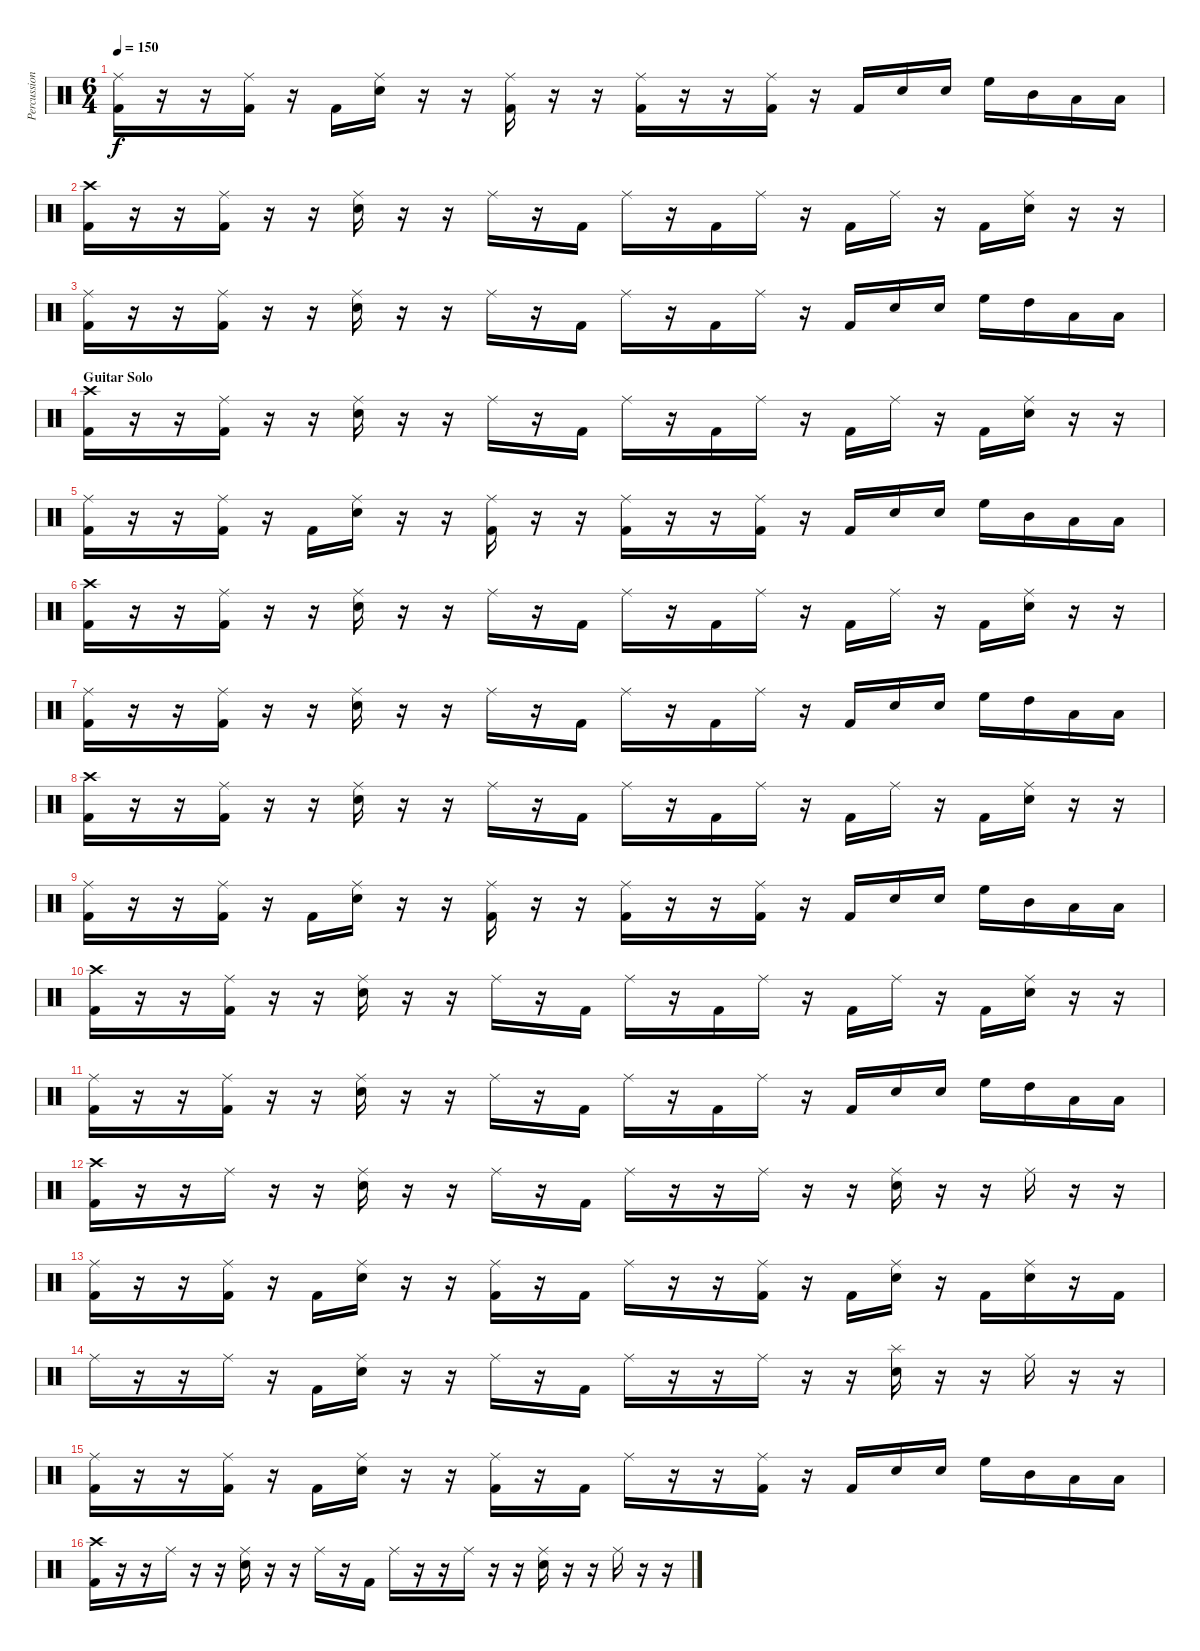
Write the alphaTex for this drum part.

\track ("Percussion" "Percussion") {instrument percussion}
\staff {score}
\articulation defaults
\ts (6 4)
\tempo 150
\clef neutral
\ks c
("Ride (middle)" "Kick (hit) 2").16{dy f} r.16 r.16 ("Ride (middle)" "Kick (hit) 2").16 r.16 "Kick (hit) 2".16 ("Ride (middle)" "Electric Snare (hit)").16 r.16 r.16 ("Ride (middle)" "Kick (hit) 2").16 r.16 r.16 ("Ride (middle)" "Kick (hit) 2").16 r.16 r.16 ("Ride (middle)" "Kick (hit) 2").16 r.16 "Kick (hit) 2".16 "Electric Snare (hit)".16 "Electric Snare (hit)".16 "High Floor Tom (hit)".16 "Mid Tom (hit)".16 "Low Tom (hit)".16 "Low Floor Tom (hit)".16 |
("Crash high (hit)" "Kick (hit) 2").16 r.16 r.16 ("Ride (middle)" "Kick (hit) 2").16 r.16 r.16 ("Ride (middle)" "Electric Snare (hit)").16 r.16 r.16 "Ride (middle)".16 r.16 "Kick (hit) 2".16 "Ride (middle)".16 r.16 "Kick (hit) 2".16 "Ride (middle)".16 r.16 "Kick (hit) 2".16 "Ride (middle)".16 r.16 "Kick (hit) 2".16 ("Ride (middle)" "Electric Snare (hit)").16 r.16 r.16 |
("Ride (middle)" "Kick (hit) 2").16 r.16 r.16 ("Ride (middle)" "Kick (hit) 2").16 r.16 r.16 ("Ride (middle)" "Electric Snare (hit)").16 r.16 r.16 "Ride (middle)".16 r.16 "Kick (hit) 2".16 "Ride (middle)".16 r.16 "Kick (hit) 2".16 "Ride (middle)".16 r.16 "Kick (hit) 2".16 "Electric Snare (hit)".16 "Electric Snare (hit)".16 "High Floor Tom (hit)".16 "High Tom (hit)".16 "Low Tom (hit)".16 "Low Floor Tom (hit)".16 |
\section ("" "Guitar Solo")
("Crash high (hit)" "Kick (hit) 2").16 r.16 r.16 ("Ride (middle)" "Kick (hit) 2").16 r.16 r.16 ("Ride (middle)" "Electric Snare (hit)").16 r.16 r.16 "Ride (middle)".16 r.16 "Kick (hit) 2".16 "Ride (middle)".16 r.16 "Kick (hit) 2".16 "Ride (middle)".16 r.16 "Kick (hit) 2".16 "Ride (middle)".16 r.16 "Kick (hit) 2".16 ("Ride (middle)" "Electric Snare (hit)").16 r.16 r.16 |
("Ride (middle)" "Kick (hit) 2").16 r.16 r.16 ("Ride (middle)" "Kick (hit) 2").16 r.16 "Kick (hit) 2".16 ("Ride (middle)" "Electric Snare (hit)").16 r.16 r.16 ("Ride (middle)" "Kick (hit) 2").16 r.16 r.16 ("Ride (middle)" "Kick (hit) 2").16 r.16 r.16 ("Ride (middle)" "Kick (hit) 2").16 r.16 "Kick (hit) 2".16 "Electric Snare (hit)".16 "Electric Snare (hit)".16 "High Floor Tom (hit)".16 "Mid Tom (hit)".16 "Low Tom (hit)".16 "Low Floor Tom (hit)".16 |
("Crash high (hit)" "Kick (hit) 2").16 r.16 r.16 ("Ride (middle)" "Kick (hit) 2").16 r.16 r.16 ("Ride (middle)" "Electric Snare (hit)").16 r.16 r.16 "Ride (middle)".16 r.16 "Kick (hit) 2".16 "Ride (middle)".16 r.16 "Kick (hit) 2".16 "Ride (middle)".16 r.16 "Kick (hit) 2".16 "Ride (middle)".16 r.16 "Kick (hit) 2".16 ("Ride (middle)" "Electric Snare (hit)").16 r.16 r.16 |
("Ride (middle)" "Kick (hit) 2").16 r.16 r.16 ("Ride (middle)" "Kick (hit) 2").16 r.16 r.16 ("Ride (middle)" "Electric Snare (hit)").16 r.16 r.16 "Ride (middle)".16 r.16 "Kick (hit) 2".16 "Ride (middle)".16 r.16 "Kick (hit) 2".16 "Ride (middle)".16 r.16 "Kick (hit) 2".16 "Electric Snare (hit)".16 "Electric Snare (hit)".16 "High Floor Tom (hit)".16 "High Tom (hit)".16 "Low Tom (hit)".16 "Low Floor Tom (hit)".16 |
("Crash high (hit)" "Kick (hit) 2").16 r.16 r.16 ("Ride (middle)" "Kick (hit) 2").16 r.16 r.16 ("Ride (middle)" "Electric Snare (hit)").16 r.16 r.16 "Ride (middle)".16 r.16 "Kick (hit) 2".16 "Ride (middle)".16 r.16 "Kick (hit) 2".16 "Ride (middle)".16 r.16 "Kick (hit) 2".16 "Ride (middle)".16 r.16 "Kick (hit) 2".16 ("Ride (middle)" "Electric Snare (hit)").16 r.16 r.16 |
("Ride (middle)" "Kick (hit) 2").16 r.16 r.16 ("Ride (middle)" "Kick (hit) 2").16 r.16 "Kick (hit) 2".16 ("Ride (middle)" "Electric Snare (hit)").16 r.16 r.16 ("Ride (middle)" "Kick (hit) 2").16 r.16 r.16 ("Ride (middle)" "Kick (hit) 2").16 r.16 r.16 ("Ride (middle)" "Kick (hit) 2").16 r.16 "Kick (hit) 2".16 "Electric Snare (hit)".16 "Electric Snare (hit)".16 "High Floor Tom (hit)".16 "Mid Tom (hit)".16 "Low Tom (hit)".16 "Low Floor Tom (hit)".16 |
("Crash high (hit)" "Kick (hit) 2").16 r.16 r.16 ("Ride (middle)" "Kick (hit) 2").16 r.16 r.16 ("Ride (middle)" "Electric Snare (hit)").16 r.16 r.16 "Ride (middle)".16 r.16 "Kick (hit) 2".16 "Ride (middle)".16 r.16 "Kick (hit) 2".16 "Ride (middle)".16 r.16 "Kick (hit) 2".16 "Ride (middle)".16 r.16 "Kick (hit) 2".16 ("Ride (middle)" "Electric Snare (hit)").16 r.16 r.16 |
("Ride (middle)" "Kick (hit) 2").16 r.16 r.16 ("Ride (middle)" "Kick (hit) 2").16 r.16 r.16 ("Ride (middle)" "Electric Snare (hit)").16 r.16 r.16 "Ride (middle)".16 r.16 "Kick (hit) 2".16 "Ride (middle)".16 r.16 "Kick (hit) 2".16 "Ride (middle)".16 r.16 "Kick (hit) 2".16 "Electric Snare (hit)".16 "Electric Snare (hit)".16 "High Floor Tom (hit)".16 "High Tom (hit)".16 "Low Tom (hit)".16 "Low Floor Tom (hit)".16 |
("Crash high (hit)" "Kick (hit) 2").16 r.16 r.16 "Ride (middle)".16 r.16 r.16 ("Ride (middle)" "Electric Snare (hit)").16 r.16 r.16 "Ride (middle)".16 r.16 "Kick (hit) 2".16 "Ride (middle)".16 r.16 r.16 "Ride (middle)".16 r.16 r.16 ("Ride (middle)" "Electric Snare (hit)").16 r.16 r.16 "Ride (middle)".16 r.16 r.16 |
("Ride (middle)" "Kick (hit) 2").16 r.16 r.16 ("Ride (middle)" "Kick (hit) 2").16 r.16 "Kick (hit) 2".16 ("Ride (middle)" "Electric Snare (hit)").16 r.16 r.16 ("Ride (middle)" "Kick (hit) 2").16 r.16 "Kick (hit) 2".16 "Ride (middle)".16 r.16 r.16 ("Ride (middle)" "Kick (hit) 2").16 r.16 "Kick (hit) 2".16 ("Ride (middle)" "Electric Snare (hit)").16 r.16 "Kick (hit) 2".16 ("Ride (middle)" "Electric Snare (hit)").16 r.16 "Kick (hit) 2".16 |
"Ride (middle)".16 r.16 r.16 "Ride (middle)".16 r.16 "Kick (hit) 2".16 ("Ride (middle)" "Electric Snare (hit)").16 r.16 r.16 "Ride (middle)".16 r.16 "Kick (hit) 2".16 "Ride (middle)".16 r.16 r.16 "Ride (middle)".16 r.16 r.16 ("Splash (hit)" "Electric Snare (hit)").16 r.16 r.16 "Ride (middle)".16 r.16 r.16 |
("Ride (middle)" "Kick (hit) 2").16 r.16 r.16 ("Ride (middle)" "Kick (hit) 2").16 r.16 "Kick (hit) 2".16 ("Ride (middle)" "Electric Snare (hit)").16 r.16 r.16 ("Ride (middle)" "Kick (hit) 2").16 r.16 "Kick (hit) 2".16 "Ride (middle)".16 r.16 r.16 ("Ride (middle)" "Kick (hit) 2").16 r.16 "Kick (hit) 2".16 "Electric Snare (hit)".16 "Electric Snare (hit)".16 "High Floor Tom (hit)".16 "Mid Tom (hit)".16 "Low Tom (hit)".16 "Low Floor Tom (hit)".16 |
("Crash high (hit)" "Kick (hit) 2").16 r.16 r.16 "Ride (middle)".16 r.16 r.16 ("Ride (middle)" "Electric Snare (hit)").16 r.16 r.16 "Ride (middle)".16 r.16 "Kick (hit) 2".16 "Ride (middle)".16 r.16 r.16 "Ride (middle)".16 r.16 r.16 ("Ride (middle)" "Electric Snare (hit)").16 r.16 r.16 "Ride (middle)".16 r.16 r.16
